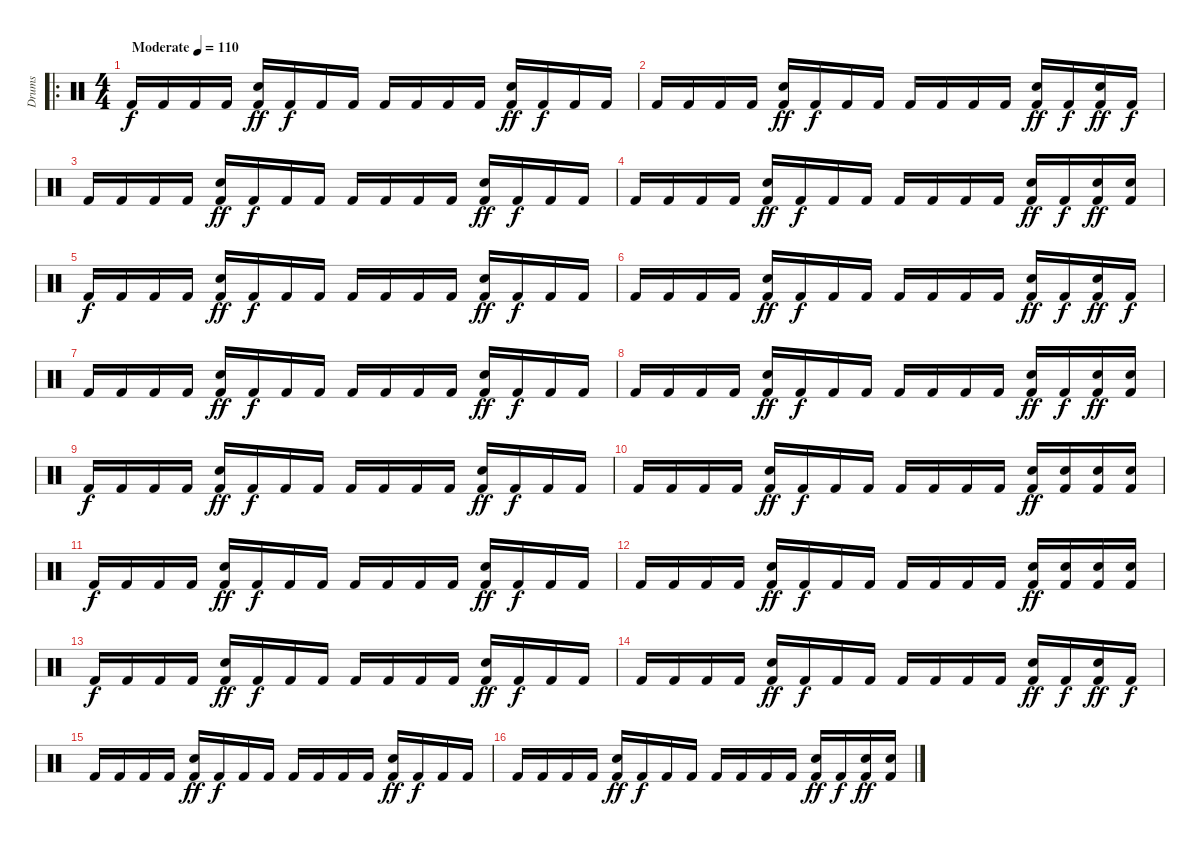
\track ("Drums" "Drums") {instrument percussion}
\staff {score}
\articulation defaults
\ro
\ts (4 4)
\tempo (110 "Moderate")
\clef neutral
\ks c "Kick (hit) 2".16{dy f} "Kick (hit) 2".16 "Kick (hit) 2".16 "Kick (hit) 2".16
("Electric Snare (hit)" "Kick (hit) 2").16{dy ff} "Kick (hit) 2".16{dy f} "Kick (hit) 2".16 "Kick (hit) 2".16 "Kick (hit) 2".16 "Kick (hit) 2".16 "Kick (hit) 2".16 "Kick (hit) 2".16 ("Electric Snare (hit)" "Kick (hit) 2").16{dy ff} "Kick (hit) 2".16{dy f} "Kick (hit) 2".16 "Kick (hit) 2".16 |
"Kick (hit) 2".16 "Kick (hit) 2".16 "Kick (hit) 2".16 "Kick (hit) 2".16 ("Electric Snare (hit)" "Kick (hit) 2").16{dy ff} "Kick (hit) 2".16{dy f} "Kick (hit) 2".16 "Kick (hit) 2".16 "Kick (hit) 2".16 "Kick (hit) 2".16 "Kick (hit) 2".16 "Kick (hit) 2".16 ("Electric Snare (hit)" "Kick (hit) 2").16{dy ff} "Kick (hit) 2".16{dy f} ("Electric Snare (hit)" "Kick (hit) 2").16{dy ff} "Kick (hit) 2".16{dy f} |
"Kick (hit) 2".16 "Kick (hit) 2".16 "Kick (hit) 2".16 "Kick (hit) 2".16 ("Electric Snare (hit)" "Kick (hit) 2").16{dy ff} "Kick (hit) 2".16{dy f} "Kick (hit) 2".16 "Kick (hit) 2".16 "Kick (hit) 2".16 "Kick (hit) 2".16 "Kick (hit) 2".16 "Kick (hit) 2".16 ("Electric Snare (hit)" "Kick (hit) 2").16{dy ff} "Kick (hit) 2".16{dy f} "Kick (hit) 2".16 "Kick (hit) 2".16 |
"Kick (hit) 2".16 "Kick (hit) 2".16 "Kick (hit) 2".16 "Kick (hit) 2".16 ("Electric Snare (hit)" "Kick (hit) 2").16{dy ff} "Kick (hit) 2".16{dy f} "Kick (hit) 2".16 "Kick (hit) 2".16 "Kick (hit) 2".16 "Kick (hit) 2".16 "Kick (hit) 2".16 "Kick (hit) 2".16 ("Electric Snare (hit)" "Kick (hit) 2").16{dy ff} "Kick (hit) 2".16{dy f} ("Electric Snare (hit)" "Kick (hit) 2").16{dy ff} ("Electric Snare (hit)" "Kick (hit) 2").16 |
"Kick (hit) 2".16{dy f} "Kick (hit) 2".16 "Kick (hit) 2".16 "Kick (hit) 2".16 ("Electric Snare (hit)" "Kick (hit) 2").16{dy ff} "Kick (hit) 2".16{dy f} "Kick (hit) 2".16 "Kick (hit) 2".16 "Kick (hit) 2".16 "Kick (hit) 2".16 "Kick (hit) 2".16 "Kick (hit) 2".16 ("Electric Snare (hit)" "Kick (hit) 2").16{dy ff} "Kick (hit) 2".16{dy f} "Kick (hit) 2".16 "Kick (hit) 2".16 |
"Kick (hit) 2".16 "Kick (hit) 2".16 "Kick (hit) 2".16 "Kick (hit) 2".16 ("Electric Snare (hit)" "Kick (hit) 2").16{dy ff} "Kick (hit) 2".16{dy f} "Kick (hit) 2".16 "Kick (hit) 2".16 "Kick (hit) 2".16 "Kick (hit) 2".16 "Kick (hit) 2".16 "Kick (hit) 2".16 ("Electric Snare (hit)" "Kick (hit) 2").16{dy ff} "Kick (hit) 2".16{dy f} ("Electric Snare (hit)" "Kick (hit) 2").16{dy ff} "Kick (hit) 2".16{dy f} |
"Kick (hit) 2".16 "Kick (hit) 2".16 "Kick (hit) 2".16 "Kick (hit) 2".16 ("Electric Snare (hit)" "Kick (hit) 2").16{dy ff} "Kick (hit) 2".16{dy f} "Kick (hit) 2".16 "Kick (hit) 2".16 "Kick (hit) 2".16 "Kick (hit) 2".16 "Kick (hit) 2".16 "Kick (hit) 2".16 ("Electric Snare (hit)" "Kick (hit) 2").16{dy ff} "Kick (hit) 2".16{dy f} "Kick (hit) 2".16 "Kick (hit) 2".16 |
"Kick (hit) 2".16 "Kick (hit) 2".16 "Kick (hit) 2".16 "Kick (hit) 2".16 ("Electric Snare (hit)" "Kick (hit) 2").16{dy ff} "Kick (hit) 2".16{dy f} "Kick (hit) 2".16 "Kick (hit) 2".16 "Kick (hit) 2".16 "Kick (hit) 2".16 "Kick (hit) 2".16 "Kick (hit) 2".16 ("Electric Snare (hit)" "Kick (hit) 2").16{dy ff} "Kick (hit) 2".16{dy f} ("Electric Snare (hit)" "Kick (hit) 2").16{dy ff} ("Electric Snare (hit)" "Kick (hit) 2").16 |
"Kick (hit) 2".16{dy f} "Kick (hit) 2".16 "Kick (hit) 2".16 "Kick (hit) 2".16 ("Electric Snare (hit)" "Kick (hit) 2").16{dy ff} "Kick (hit) 2".16{dy f} "Kick (hit) 2".16 "Kick (hit) 2".16 "Kick (hit) 2".16 "Kick (hit) 2".16 "Kick (hit) 2".16 "Kick (hit) 2".16 ("Electric Snare (hit)" "Kick (hit) 2").16{dy ff} "Kick (hit) 2".16{dy f} "Kick (hit) 2".16 "Kick (hit) 2".16 |
"Kick (hit) 2".16 "Kick (hit) 2".16 "Kick (hit) 2".16 "Kick (hit) 2".16 ("Electric Snare (hit)" "Kick (hit) 2").16{dy ff} "Kick (hit) 2".16{dy f} "Kick (hit) 2".16 "Kick (hit) 2".16 "Kick (hit) 2".16 "Kick (hit) 2".16 "Kick (hit) 2".16 "Kick (hit) 2".16 ("Electric Snare (hit)" "Kick (hit) 2").16{dy ff} ("Electric Snare (hit)" "Kick (hit) 2").16 ("Electric Snare (hit)" "Kick (hit) 2").16 ("Electric Snare (hit)" "Kick (hit) 2").16 |
"Kick (hit) 2".16{dy f} "Kick (hit) 2".16 "Kick (hit) 2".16 "Kick (hit) 2".16 ("Electric Snare (hit)" "Kick (hit) 2").16{dy ff} "Kick (hit) 2".16{dy f} "Kick (hit) 2".16 "Kick (hit) 2".16 "Kick (hit) 2".16 "Kick (hit) 2".16 "Kick (hit) 2".16 "Kick (hit) 2".16 ("Electric Snare (hit)" "Kick (hit) 2").16{dy ff} "Kick (hit) 2".16{dy f} "Kick (hit) 2".16 "Kick (hit) 2".16 |
"Kick (hit) 2".16 "Kick (hit) 2".16 "Kick (hit) 2".16 "Kick (hit) 2".16 ("Electric Snare (hit)" "Kick (hit) 2").16{dy ff} "Kick (hit) 2".16{dy f} "Kick (hit) 2".16 "Kick (hit) 2".16 "Kick (hit) 2".16 "Kick (hit) 2".16 "Kick (hit) 2".16 "Kick (hit) 2".16 ("Electric Snare (hit)" "Kick (hit) 2").16{dy ff} ("Electric Snare (hit)" "Kick (hit) 2").16 ("Electric Snare (hit)" "Kick (hit) 2").16 ("Electric Snare (hit)" "Kick (hit) 2").16 |
"Kick (hit) 2".16{dy f} "Kick (hit) 2".16 "Kick (hit) 2".16 "Kick (hit) 2".16 ("Electric Snare (hit)" "Kick (hit) 2").16{dy ff} "Kick (hit) 2".16{dy f} "Kick (hit) 2".16 "Kick (hit) 2".16 "Kick (hit) 2".16 "Kick (hit) 2".16 "Kick (hit) 2".16 "Kick (hit) 2".16 ("Electric Snare (hit)" "Kick (hit) 2").16{dy ff} "Kick (hit) 2".16{dy f} "Kick (hit) 2".16 "Kick (hit) 2".16 |
"Kick (hit) 2".16 "Kick (hit) 2".16 "Kick (hit) 2".16 "Kick (hit) 2".16 ("Electric Snare (hit)" "Kick (hit) 2").16{dy ff} "Kick (hit) 2".16{dy f} "Kick (hit) 2".16 "Kick (hit) 2".16 "Kick (hit) 2".16 "Kick (hit) 2".16 "Kick (hit) 2".16 "Kick (hit) 2".16 ("Electric Snare (hit)" "Kick (hit) 2").16{dy ff} "Kick (hit) 2".16{dy f} ("Electric Snare (hit)" "Kick (hit) 2").16{dy ff} "Kick (hit) 2".16{dy f} |
"Kick (hit) 2".16 "Kick (hit) 2".16 "Kick (hit) 2".16 "Kick (hit) 2".16 ("Electric Snare (hit)" "Kick (hit) 2").16{dy ff} "Kick (hit) 2".16{dy f} "Kick (hit) 2".16 "Kick (hit) 2".16 "Kick (hit) 2".16 "Kick (hit) 2".16 "Kick (hit) 2".16 "Kick (hit) 2".16 ("Electric Snare (hit)" "Kick (hit) 2").16{dy ff} "Kick (hit) 2".16{dy f} "Kick (hit) 2".16 "Kick (hit) 2".16 |
"Kick (hit) 2".16 "Kick (hit) 2".16 "Kick (hit) 2".16 "Kick (hit) 2".16 ("Electric Snare (hit)" "Kick (hit) 2").16{dy ff} "Kick (hit) 2".16{dy f} "Kick (hit) 2".16 "Kick (hit) 2".16 "Kick (hit) 2".16 "Kick (hit) 2".16 "Kick (hit) 2".16 "Kick (hit) 2".16 ("Electric Snare (hit)" "Kick (hit) 2").16{dy ff} "Kick (hit) 2".16{dy f} ("Electric Snare (hit)" "Kick (hit) 2").16{dy ff} ("Electric Snare (hit)" "Kick (hit) 2").16
